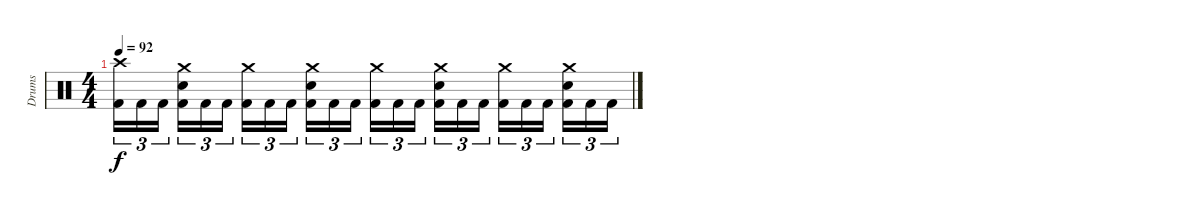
\track ("Drums" "Drums") {instrument percussion}
\staff {score}
\articulation defaults
\ts (4 4)
\tempo 92
\clef neutral
\ks c
("Kick (hit) 2" "Crash high (hit)").16{tu (3 2) dy f} "Kick (hit) 2".16{tu (3 2)} "Kick (hit) 2".16{tu (3 2)} ("Kick (hit) 2" "Electric Snare (hit)" "Crash medium (hit)").16{tu (3 2)} "Kick (hit) 2".16{tu (3 2)} "Kick (hit) 2".16{tu (3 2)} ("Kick (hit) 2" "Crash medium (hit)").16{tu (3 2)} "Kick (hit) 2".16{tu (3 2)} "Kick (hit) 2".16{tu (3 2)} ("Kick (hit) 2" "Electric Snare (hit)" "Crash medium (hit)").16{tu (3 2)} "Kick (hit) 2".16{tu (3 2)} "Kick (hit) 2".16{tu (3 2)} ("Kick (hit) 2" "Crash medium (hit)").16{tu (3 2)} "Kick (hit) 2".16{tu (3 2)} "Kick (hit) 2".16{tu (3 2)} ("Kick (hit) 2" "Electric Snare (hit)" "Crash medium (hit)").16{tu (3 2)} "Kick (hit) 2".16{tu (3 2)} "Kick (hit) 2".16{tu (3 2)} ("Kick (hit) 2" "Crash medium (hit)").16{tu (3 2)} "Kick (hit) 2".16{tu (3 2)} "Kick (hit) 2".16{tu (3 2)} ("Kick (hit) 2" "Electric Snare (hit)" "Crash medium (hit)").16{tu (3 2)} "Kick (hit) 2".16{tu (3 2)} "Kick (hit) 2".16{tu (3 2)}
